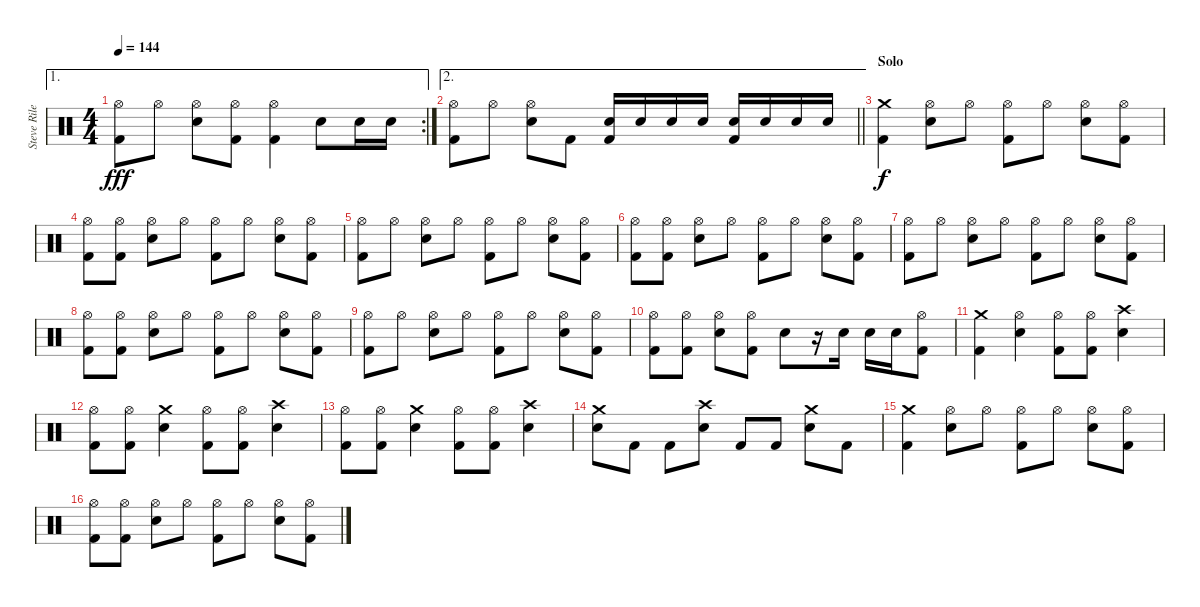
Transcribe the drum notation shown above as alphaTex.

\track ("Steve Riley" "Steve Rile") {instrument percussion}
\staff {score}
\articulation defaults
\ae 1
\rc 2
\ts (4 4)
\tempo 144
\clef neutral
\ks c
("Hi-Hat (open)" "Kick (hit) 2").8{dy fff} "Hi-Hat (open)".8 ("Hi-Hat (open)" "Snare (hit) 2").8 ("Hi-Hat (open)" "Kick (hit) 2").8 ("Hi-Hat (open)" "Kick (hit) 2").4 "Snare (hit) 2".8 "Snare (hit) 2".16 "Snare (hit) 2".16 |
\ae 2
\barLineRight lightlight
("Hi-Hat (open)" "Kick (hit) 2").8 "Hi-Hat (open)".8 ("Hi-Hat (open)" "Snare (hit) 2").8 "Kick (hit) 2".8 ("Snare (hit) 2" "Kick (hit) 2").16 "Snare (hit) 2".16 "Snare (hit) 2".16 "Snare (hit) 2".16 ("Snare (hit) 2" "Kick (hit) 2").16 "Snare (hit) 2".16 "Snare (hit) 2".16 "Snare (hit) 2".16 |
\section ("" "Solo")
("Crash medium (hit)" "Kick (hit) 2").4{dy f} ("Hi-Hat (open)" "Snare (hit) 2").8 "Hi-Hat (open)".8 ("Hi-Hat (open)" "Kick (hit) 2").8 "Hi-Hat (open)".8 ("Hi-Hat (open)" "Snare (hit) 2").8 ("Hi-Hat (open)" "Kick (hit) 2").8 |
("Hi-Hat (open)" "Kick (hit) 2").8 ("Hi-Hat (open)" "Kick (hit) 2").8 ("Hi-Hat (open)" "Snare (hit) 2").8 "Hi-Hat (open)".8 ("Hi-Hat (open)" "Kick (hit) 2").8 "Hi-Hat (open)".8 ("Hi-Hat (open)" "Snare (hit) 2").8 ("Hi-Hat (open)" "Kick (hit) 2").8 |
("Hi-Hat (open)" "Kick (hit) 2").8 "Hi-Hat (open)".8 ("Hi-Hat (open)" "Snare (hit) 2").8 "Hi-Hat (open)".8 ("Hi-Hat (open)" "Kick (hit) 2").8 "Hi-Hat (open)".8 ("Hi-Hat (open)" "Snare (hit) 2").8 ("Hi-Hat (open)" "Kick (hit) 2").8 |
("Hi-Hat (open)" "Kick (hit) 2").8 ("Hi-Hat (open)" "Kick (hit) 2").8 ("Hi-Hat (open)" "Snare (hit) 2").8 "Hi-Hat (open)".8 ("Hi-Hat (open)" "Kick (hit) 2").8 "Hi-Hat (open)".8 ("Hi-Hat (open)" "Snare (hit) 2").8 ("Hi-Hat (open)" "Kick (hit) 2").8 |
("Hi-Hat (open)" "Kick (hit) 2").8 "Hi-Hat (open)".8 ("Hi-Hat (open)" "Snare (hit) 2").8 "Hi-Hat (open)".8 ("Hi-Hat (open)" "Kick (hit) 2").8 "Hi-Hat (open)".8 ("Hi-Hat (open)" "Snare (hit) 2").8 ("Hi-Hat (open)" "Kick (hit) 2").8 |
("Hi-Hat (open)" "Kick (hit) 2").8 ("Hi-Hat (open)" "Kick (hit) 2").8 ("Hi-Hat (open)" "Snare (hit) 2").8 "Hi-Hat (open)".8 ("Hi-Hat (open)" "Kick (hit) 2").8 "Hi-Hat (open)".8 ("Hi-Hat (open)" "Snare (hit) 2").8 ("Hi-Hat (open)" "Kick (hit) 2").8 |
("Hi-Hat (open)" "Kick (hit) 2").8 "Hi-Hat (open)".8 ("Hi-Hat (open)" "Snare (hit) 2").8 "Hi-Hat (open)".8 ("Hi-Hat (open)" "Kick (hit) 2").8 "Hi-Hat (open)".8 ("Hi-Hat (open)" "Snare (hit) 2").8 ("Hi-Hat (open)" "Kick (hit) 2").8 |
("Hi-Hat (open)" "Kick (hit) 2").8 ("Hi-Hat (open)" "Kick (hit) 2").8 ("Hi-Hat (open)" "Snare (hit) 2").8 ("Hi-Hat (open)" "Kick (hit) 2").8 "Snare (hit) 2".8 r.16 "Snare (hit) 2".16 "Snare (hit) 2".16 "Snare (hit) 2".16 ("Hi-Hat (open)" "Kick (hit) 2").8 |
("Crash medium (hit)" "Kick (hit) 2").4 ("Hi-Hat (open)" "Snare (hit) 2").4 ("Hi-Hat (open)" "Kick (hit) 2").8 ("Hi-Hat (open)" "Kick (hit) 2").8 ("Crash high (hit)" "Snare (hit) 2").4 |
("Hi-Hat (open)" "Kick (hit) 2").8 ("Hi-Hat (open)" "Kick (hit) 2").8 ("Crash medium (hit)" "Snare (hit) 2").4 ("Hi-Hat (open)" "Kick (hit) 2").8 ("Hi-Hat (open)" "Kick (hit) 2").8 ("Crash high (hit)" "Snare (hit) 2").4 |
("Hi-Hat (open)" "Kick (hit) 2").8 ("Hi-Hat (open)" "Kick (hit) 2").8 ("Crash medium (hit)" "Snare (hit) 2").4 ("Hi-Hat (open)" "Kick (hit) 2").8 ("Hi-Hat (open)" "Kick (hit) 2").8 ("Crash high (hit)" "Snare (hit) 2").4 |
("Crash medium (hit)" "Snare (hit) 2").8 "Kick (hit) 2".8 "Kick (hit) 2".8 ("Crash high (hit)" "Snare (hit) 2").8 "Kick (hit) 2".8 "Kick (hit) 2".8 ("Crash medium (hit)" "Snare (hit) 2").8 "Kick (hit) 2".8 |
("Crash medium (hit)" "Kick (hit) 2").4 ("Hi-Hat (open)" "Snare (hit) 2").8 "Hi-Hat (open)".8 ("Hi-Hat (open)" "Kick (hit) 2").8 "Hi-Hat (open)".8 ("Hi-Hat (open)" "Snare (hit) 2").8 ("Hi-Hat (open)" "Kick (hit) 2").8 |
("Hi-Hat (open)" "Kick (hit) 2").8 ("Hi-Hat (open)" "Kick (hit) 2").8 ("Hi-Hat (open)" "Snare (hit) 2").8 "Hi-Hat (open)".8 ("Hi-Hat (open)" "Kick (hit) 2").8 "Hi-Hat (open)".8 ("Hi-Hat (open)" "Snare (hit) 2").8 ("Hi-Hat (open)" "Kick (hit) 2").8
